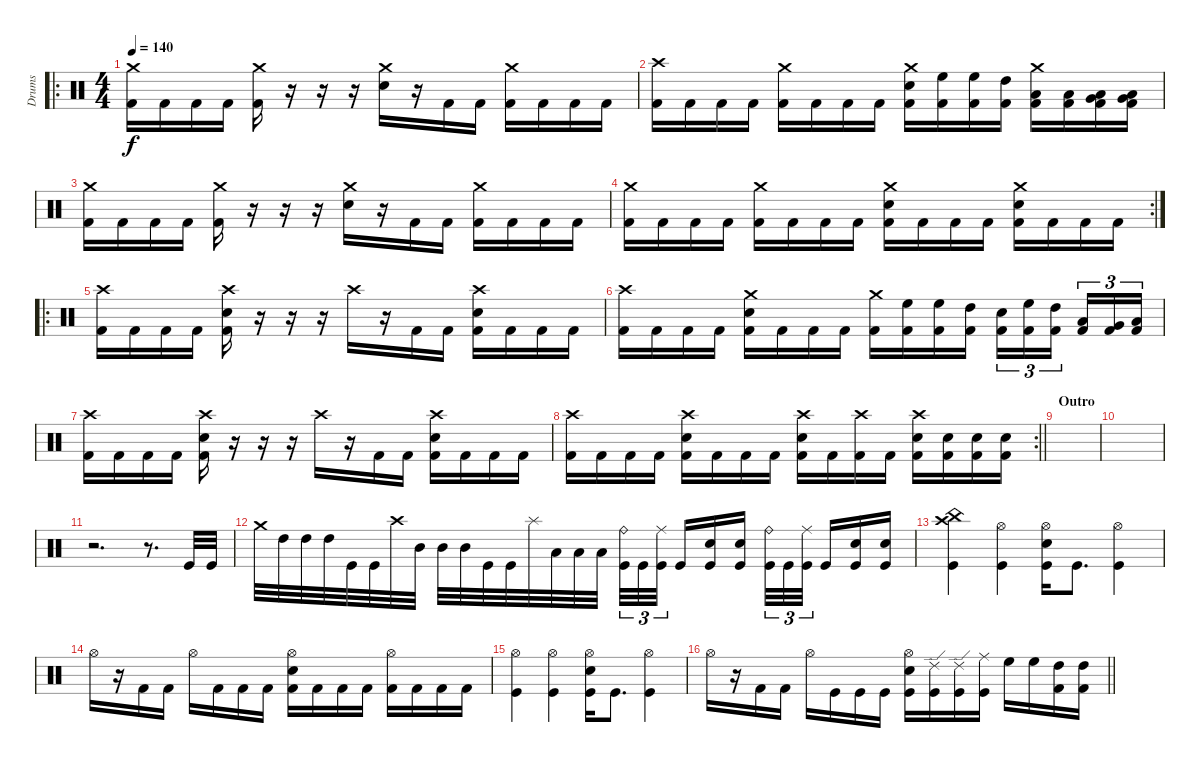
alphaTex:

\track ("Drums" "Drums") {mute instrument percussion}
\staff {score}
\articulation defaults
\ro
\ts (4 4)
\tempo 140
\clef neutral
\ks c
("Crash medium (hit)" "Kick (hit) 2").16{dy f} "Kick (hit) 2".16 "Kick (hit) 2".16 "Kick (hit) 2".16 ("Crash medium (hit)" "Kick (hit) 2").16 r.16 r.16 r.16 ("Crash medium (hit)" "Electric Snare (hit)").16 r.16 "Kick (hit) 2".16 "Kick (hit) 2".16 ("Crash medium (hit)" "Kick (hit) 2").16 "Kick (hit) 2".16 "Kick (hit) 2".16 "Kick (hit) 2".16 |
("Crash high (hit)" "Kick (hit) 2").16 "Kick (hit) 2".16 "Kick (hit) 2".16 "Kick (hit) 2".16 ("Crash medium (hit)" "Kick (hit) 2").16 "Kick (hit) 2".16 "Kick (hit) 2".16 "Kick (hit) 2".16 ("Crash medium (hit)" "Electric Snare (hit)" "Kick (hit) 2").16 ("High Floor Tom (hit)" "Kick (hit) 2").16 ("High Floor Tom (hit)" "Kick (hit) 2").16 ("High Tom (hit)" "Kick (hit) 2").16 ("Crash medium (hit)" "Low Tom (hit)" "Kick (hit) 2").16 ("Low Tom (hit)" "Kick (hit) 2").16 ("Low Floor Tom (hit)" "Very Low Tom (hit)" "Kick (hit) 2").16 ("Low Floor Tom (hit)" "Very Low Tom (hit)" "Kick (hit) 2").16 |
("Crash medium (hit)" "Kick (hit) 2").16 "Kick (hit) 2".16 "Kick (hit) 2".16 "Kick (hit) 2".16 ("Crash medium (hit)" "Kick (hit) 2").16 r.16 r.16 r.16 ("Crash medium (hit)" "Electric Snare (hit)").16 r.16 "Kick (hit) 2".16 "Kick (hit) 2".16 ("Crash medium (hit)" "Kick (hit) 2").16 "Kick (hit) 2".16 "Kick (hit) 2".16 "Kick (hit) 2".16 |
\rc 2
("Crash medium (hit)" "Kick (hit) 2").16 "Kick (hit) 2".16 "Kick (hit) 2".16 "Kick (hit) 2".16 ("Crash medium (hit)" "Kick (hit) 2").16 "Kick (hit) 2".16 "Kick (hit) 2".16 "Kick (hit) 2".16 ("Crash medium (hit)" "Electric Snare (hit)" "Kick (hit) 2").16 "Kick (hit) 2".16 "Kick (hit) 2".16 "Kick (hit) 2".16 ("Crash medium (hit)" "Electric Snare (hit)" "Kick (hit) 2").16 "Kick (hit) 2".16 "Kick (hit) 2".16 "Kick (hit) 2".16 |
\ro
("Crash high (hit)" "Kick (hit) 2").16 "Kick (hit) 2".16 "Kick (hit) 2".16 "Kick (hit) 2".16 ("Crash high (hit)" "Electric Snare (hit)" "Kick (hit) 2").16 r.16 r.16 r.16 "Crash high (hit)".16 r.16 "Kick (hit) 2".16 "Kick (hit) 2".16 ("Crash high (hit)" "Electric Snare (hit)" "Kick (hit) 2").16 "Kick (hit) 2".16 "Kick (hit) 2".16 "Kick (hit) 2".16 |
("Crash high (hit)" "Kick (hit) 2").16 "Kick (hit) 2".16 "Kick (hit) 2".16 "Kick (hit) 2".16 ("Crash medium (hit)" "Electric Snare (hit)" "Kick (hit) 2").16 "Kick (hit) 2".16 "Kick (hit) 2".16 "Kick (hit) 2".16 ("Crash medium (hit)" "Kick (hit) 2").16 ("High Floor Tom (hit)" "Kick (hit) 2").16 ("High Floor Tom (hit)" "Kick (hit) 2").16 ("High Tom (hit)" "Kick (hit) 2").16 ("Electric Snare (hit)" "Kick (hit) 2").16{tu (3 2)} ("High Floor Tom (hit)" "Kick (hit) 2").16{tu (3 2)} ("High Tom (hit)" "Kick (hit) 2").16{tu (3 2) beam splitsecondary} ("Low Tom (hit)" "Kick (hit) 2").16{tu (3 2)} ("Very Low Tom (hit)" "Kick (hit) 2").16{tu (3 2)} ("Low Floor Tom (hit)" "Kick (hit) 2").16{tu (3 2)} |
("Crash high (hit)" "Kick (hit) 2").16 "Kick (hit) 2".16 "Kick (hit) 2".16 "Kick (hit) 2".16 ("Crash high (hit)" "Electric Snare (hit)" "Kick (hit) 2").16 r.16 r.16 r.16 "Crash high (hit)".16 r.16 "Kick (hit) 2".16 "Kick (hit) 2".16 ("Crash high (hit)" "Electric Snare (hit)" "Kick (hit) 2").16 "Kick (hit) 2".16 "Kick (hit) 2".16 "Kick (hit) 2".16 |
\rc 2
\barLineRight lightlight
("Crash high (hit)" "Kick (hit) 2").16 "Kick (hit) 2".16 "Kick (hit) 2".16 "Kick (hit) 2".16 ("Crash high (hit)" "Electric Snare (hit)" "Kick (hit) 2").16 "Kick (hit) 2".16 "Kick (hit) 2".16 "Kick (hit) 2".16 ("Crash high (hit)" "Electric Snare (hit)" "Kick (hit) 2").16 "Kick (hit) 2".16 ("Crash high (hit)" "Kick (hit) 2").16 "Kick (hit) 2".16 ("Crash high (hit)" "Electric Snare (hit)" "Kick (hit) 2").16 ("Electric Snare (hit)" "Kick (hit) 2").16 ("Electric Snare (hit)" "Kick (hit) 2").16 ("Electric Snare (hit)" "Kick (hit) 2").16 |
\section ("" "Outro")
|
|
r.2{d} r.8{d} "Kick (hit)".32 "Kick (hit)".32 |
"Crash medium (hit)".32 "High Tom (hit)".32 "High Tom (hit)".32 "High Tom (hit)".32 "Kick (hit)".32 "Kick (hit)".32 "Crash high (hit)".32 "Mid Tom (hit)".32 "Mid Tom (hit)".32 "Mid Tom (hit)".32 "Kick (hit)".32 "Kick (hit)".32 "Splash (hit)".32 "Low Tom (hit)".32 "Low Tom (hit)".32 "Low Tom (hit)".32 ("Ride (bell)" "Kick (hit)").32{tu (3 2)} "Kick (hit)".32{tu (3 2)} ("Ride (middle)" "Kick (hit)").32{tu (3 2) beam splitsecondary} "Kick (hit)".16 ("Electric Snare (hit)" "Kick (hit)").16 ("Electric Snare (hit)" "Kick (hit)").16 ("Ride (bell)" "Kick (hit)").32{tu (3 2)} "Kick (hit)".32{tu (3 2)} ("Ride (middle)" "Kick (hit)").32{tu (3 2) beam splitsecondary} "Kick (hit)".16 ("Electric Snare (hit)" "Kick (hit)").16 ("Electric Snare (hit)" "Kick (hit)").16 |
("China (hit)" "Crash high (hit)" "Kick (hit)").4 ("Hi-Hat (open)" "Kick (hit)").4 ("Hi-Hat (open)" "Electric Snare (hit)" "Kick (hit)").16 "Kick (hit)".8{d} ("Hi-Hat (open)" "Kick (hit)").4 |
"Hi-Hat (open)".16 r.16 "Kick (hit) 2".16 "Kick (hit) 2".16 "Hi-Hat (open)".16 "Kick (hit) 2".16 "Kick (hit) 2".16 "Kick (hit) 2".16 ("Hi-Hat (open)" "Electric Snare (hit)" "Kick (hit) 2").16 "Kick (hit) 2".16 "Kick (hit) 2".16 "Kick (hit) 2".16 ("Hi-Hat (open)" "Kick (hit) 2").16 "Kick (hit) 2".16 "Kick (hit) 2".16 "Kick (hit) 2".16 |
("Hi-Hat (open)" "Kick (hit)").4 ("Hi-Hat (open)" "Kick (hit)").4 ("Hi-Hat (open)" "Electric Snare (hit)" "Kick (hit)").16 "Kick (hit)".8{d} ("Hi-Hat (open)" "Kick (hit)").4 |
\barLineRight lightlight "Hi-Hat (open)".16
r.16 "Kick (hit) 2".16 "Kick (hit) 2".16 "Hi-Hat (open)".16 "Kick (hit)".16 "Kick (hit)".16 "Kick (hit)".16 ("Hi-Hat (open)" "Electric Snare (hit)" "Kick (hit)").16 ("Ride (edge) 2" "Kick (hit)").16 ("Ride (edge) 2" "Kick (hit)").16 ("Ride (middle)" "Kick (hit)").16 "High Floor Tom (hit)".16 "High Floor Tom (hit)".16 ("High Tom (hit)" "Kick (hit) 2").16 ("High Tom (hit)" "Kick (hit) 2").16
